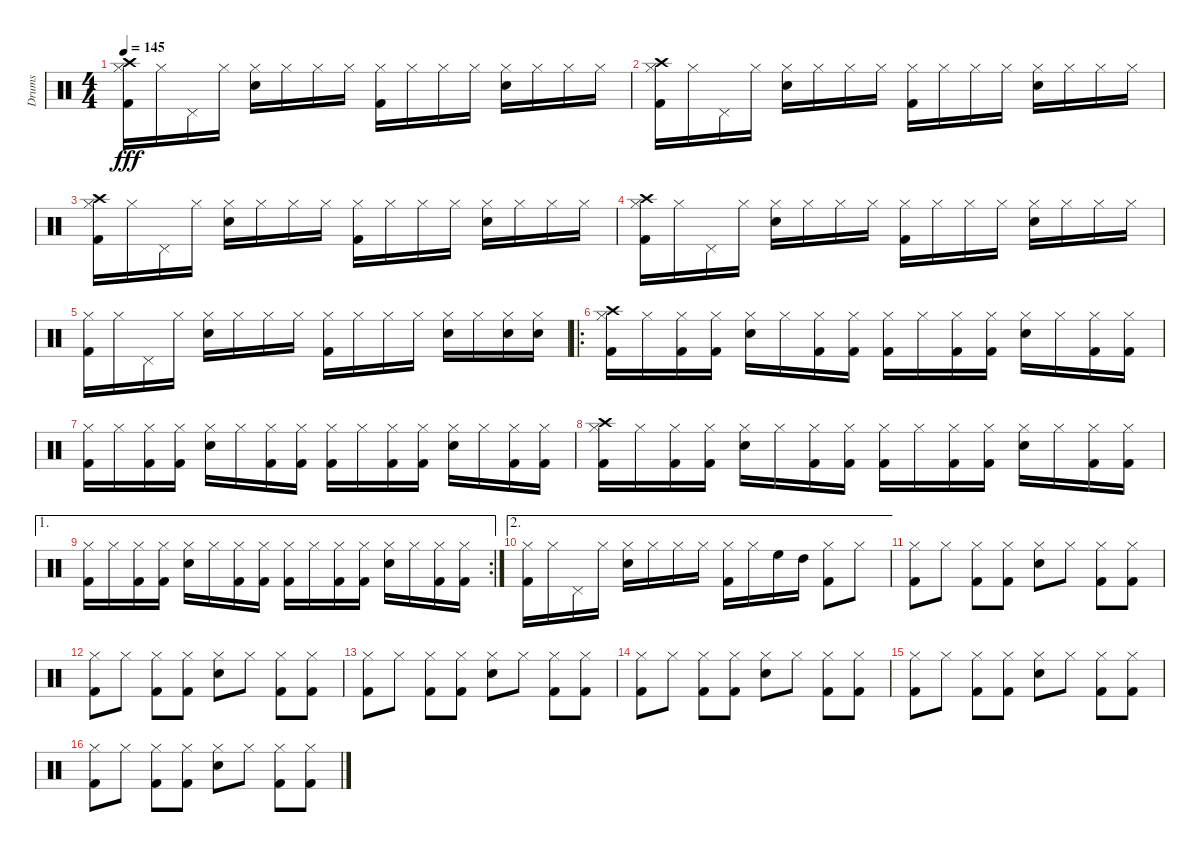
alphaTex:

\track ("Drums" "Drums") {instrument percussion}
\staff {score}
\articulation defaults
\ts (4 4)
\tempo 145
\clef neutral
\ks c
("Hi-Hat (closed)" "Kick (hit) 2" "Crash high (hit)").16{dy fff} "Hi-Hat (closed)".16 "Pedal Hi-Hat (hit)".16 "Hi-Hat (closed)".16 ("Hi-Hat (closed)" "Snare (hit) 2").16 "Hi-Hat (closed)".16 "Hi-Hat (closed)".16 "Hi-Hat (closed)".16 ("Hi-Hat (closed)" "Kick (hit) 2").16 "Hi-Hat (closed)".16 "Hi-Hat (closed)".16 "Hi-Hat (closed)".16 ("Hi-Hat (closed)" "Snare (hit) 2").16 "Hi-Hat (closed)".16 "Hi-Hat (closed)".16 "Hi-Hat (closed)".16 |
("Hi-Hat (closed)" "Kick (hit) 2" "Crash high (hit)").16 "Hi-Hat (closed)".16 "Pedal Hi-Hat (hit)".16 "Hi-Hat (closed)".16 ("Hi-Hat (closed)" "Snare (hit) 2").16 "Hi-Hat (closed)".16 "Hi-Hat (closed)".16 "Hi-Hat (closed)".16 ("Hi-Hat (closed)" "Kick (hit) 2").16 "Hi-Hat (closed)".16 "Hi-Hat (closed)".16 "Hi-Hat (closed)".16 ("Hi-Hat (closed)" "Snare (hit) 2").16 "Hi-Hat (closed)".16 "Hi-Hat (closed)".16 "Hi-Hat (closed)".16 |
("Hi-Hat (closed)" "Kick (hit) 2" "Crash high (hit)").16 "Hi-Hat (closed)".16 "Pedal Hi-Hat (hit)".16 "Hi-Hat (closed)".16 ("Hi-Hat (closed)" "Snare (hit) 2").16 "Hi-Hat (closed)".16 "Hi-Hat (closed)".16 "Hi-Hat (closed)".16 ("Hi-Hat (closed)" "Kick (hit) 2").16 "Hi-Hat (closed)".16 "Hi-Hat (closed)".16 "Hi-Hat (closed)".16 ("Hi-Hat (closed)" "Snare (hit) 2").16 "Hi-Hat (closed)".16 "Hi-Hat (closed)".16 "Hi-Hat (closed)".16 |
("Hi-Hat (closed)" "Kick (hit) 2" "Crash high (hit)").16 "Hi-Hat (closed)".16 "Pedal Hi-Hat (hit)".16 "Hi-Hat (closed)".16 ("Hi-Hat (closed)" "Snare (hit) 2").16 "Hi-Hat (closed)".16 "Hi-Hat (closed)".16 "Hi-Hat (closed)".16 ("Hi-Hat (closed)" "Kick (hit) 2").16 "Hi-Hat (closed)".16 "Hi-Hat (closed)".16 "Hi-Hat (closed)".16 ("Hi-Hat (closed)" "Snare (hit) 2").16 "Hi-Hat (closed)".16 "Hi-Hat (closed)".16 "Hi-Hat (closed)".16 |
("Hi-Hat (closed)" "Kick (hit) 2").16 "Hi-Hat (closed)".16 "Pedal Hi-Hat (hit)".16 "Hi-Hat (closed)".16 ("Hi-Hat (closed)" "Snare (hit) 2").16 "Hi-Hat (closed)".16 "Hi-Hat (closed)".16 "Hi-Hat (closed)".16 ("Hi-Hat (closed)" "Kick (hit) 2").16 "Hi-Hat (closed)".16 "Hi-Hat (closed)".16 "Hi-Hat (closed)".16 ("Hi-Hat (closed)" "Snare (hit) 2").16 "Hi-Hat (closed)".16 ("Hi-Hat (closed)" "Snare (hit) 2").16 ("Hi-Hat (closed)" "Snare (hit) 2").16 |
\ro
("Hi-Hat (closed)" "Kick (hit) 2" "Crash high (hit)").16 "Hi-Hat (closed)".16 ("Kick (hit) 2" "Hi-Hat (closed)").16 ("Kick (hit) 2" "Hi-Hat (closed)").16 ("Hi-Hat (closed)" "Snare (hit) 2").16 "Hi-Hat (closed)".16 ("Kick (hit) 2" "Hi-Hat (closed)").16 ("Kick (hit) 2" "Hi-Hat (closed)").16 ("Hi-Hat (closed)" "Kick (hit) 2").16 "Hi-Hat (closed)".16 ("Kick (hit) 2" "Hi-Hat (closed)").16 ("Kick (hit) 2" "Hi-Hat (closed)").16 ("Hi-Hat (closed)" "Snare (hit) 2").16 "Hi-Hat (closed)".16 ("Kick (hit) 2" "Hi-Hat (closed)").16 ("Kick (hit) 2" "Hi-Hat (closed)").16 |
("Hi-Hat (closed)" "Kick (hit) 2").16 "Hi-Hat (closed)".16 ("Hi-Hat (closed)" "Kick (hit) 2").16 ("Hi-Hat (closed)" "Kick (hit) 2").16 ("Hi-Hat (closed)" "Snare (hit) 2").16 "Hi-Hat (closed)".16 ("Hi-Hat (closed)" "Kick (hit) 2").16 ("Hi-Hat (closed)" "Kick (hit) 2").16 ("Hi-Hat (closed)" "Kick (hit) 2").16 "Hi-Hat (closed)".16 ("Hi-Hat (closed)" "Kick (hit) 2").16 ("Hi-Hat (closed)" "Kick (hit) 2").16 ("Hi-Hat (closed)" "Snare (hit) 2").16 "Hi-Hat (closed)".16 ("Hi-Hat (closed)" "Kick (hit) 2").16 ("Hi-Hat (closed)" "Kick (hit) 2").16 |
("Hi-Hat (closed)" "Kick (hit) 2" "Crash high (hit)").16 "Hi-Hat (closed)".16 ("Hi-Hat (closed)" "Kick (hit) 2").16 ("Hi-Hat (closed)" "Kick (hit) 2").16 ("Hi-Hat (closed)" "Snare (hit) 2").16 "Hi-Hat (closed)".16 ("Hi-Hat (closed)" "Kick (hit) 2").16 ("Hi-Hat (closed)" "Kick (hit) 2").16 ("Hi-Hat (closed)" "Kick (hit) 2").16 "Hi-Hat (closed)".16 ("Hi-Hat (closed)" "Kick (hit) 2").16 ("Hi-Hat (closed)" "Kick (hit) 2").16 ("Hi-Hat (closed)" "Snare (hit) 2").16 "Hi-Hat (closed)".16 ("Hi-Hat (closed)" "Kick (hit) 2").16 ("Hi-Hat (closed)" "Kick (hit) 2").16 |
\ae 1
\rc 2
("Hi-Hat (closed)" "Kick (hit) 2").16 "Hi-Hat (closed)".16 ("Hi-Hat (closed)" "Kick (hit) 2").16 ("Hi-Hat (closed)" "Kick (hit) 2").16 ("Hi-Hat (closed)" "Snare (hit) 2").16 "Hi-Hat (closed)".16 ("Hi-Hat (closed)" "Kick (hit) 2").16 ("Hi-Hat (closed)" "Kick (hit) 2").16 ("Hi-Hat (closed)" "Kick (hit) 2").16 "Hi-Hat (closed)".16 ("Hi-Hat (closed)" "Kick (hit) 2").16 ("Hi-Hat (closed)" "Kick (hit) 2").16 ("Hi-Hat (closed)" "Snare (hit) 2").16 "Hi-Hat (closed)".16 ("Hi-Hat (closed)" "Kick (hit) 2").16 ("Hi-Hat (closed)" "Kick (hit) 2").16 |
\ae 2
("Hi-Hat (closed)" "Kick (hit) 2").16 "Hi-Hat (closed)".16 "Pedal Hi-Hat (hit)".16 "Hi-Hat (closed)".16 ("Hi-Hat (closed)" "Snare (hit) 2").16 "Hi-Hat (closed)".16 "Hi-Hat (closed)".16 "Hi-Hat (closed)".16 ("Hi-Hat (closed)" "Kick (hit) 2").16 "Hi-Hat (closed)".16 "High Floor Tom (hit)".16 "High Tom (hit)".16 ("Hi-Hat (closed)" "Kick (hit) 2").8 "Hi-Hat (closed)".8 |
("Hi-Hat (closed)" "Kick (hit) 2").8 "Hi-Hat (closed)".8 ("Hi-Hat (closed)" "Kick (hit) 2").8 ("Hi-Hat (closed)" "Kick (hit) 2").8 ("Hi-Hat (closed)" "Snare (hit) 2").8 "Hi-Hat (closed)".8 ("Hi-Hat (closed)" "Kick (hit) 2").8 ("Hi-Hat (closed)" "Kick (hit) 2").8 |
("Hi-Hat (closed)" "Kick (hit) 2").8 "Hi-Hat (closed)".8 ("Hi-Hat (closed)" "Kick (hit) 2").8 ("Hi-Hat (closed)" "Kick (hit) 2").8 ("Hi-Hat (closed)" "Snare (hit) 2").8 "Hi-Hat (closed)".8 ("Hi-Hat (closed)" "Kick (hit) 2").8 ("Hi-Hat (closed)" "Kick (hit) 2").8 |
("Hi-Hat (closed)" "Kick (hit) 2").8 "Hi-Hat (closed)".8 ("Hi-Hat (closed)" "Kick (hit) 2").8 ("Hi-Hat (closed)" "Kick (hit) 2").8 ("Hi-Hat (closed)" "Snare (hit) 2").8 "Hi-Hat (closed)".8 ("Hi-Hat (closed)" "Kick (hit) 2").8 ("Hi-Hat (closed)" "Kick (hit) 2").8 |
("Hi-Hat (closed)" "Kick (hit) 2").8 "Hi-Hat (closed)".8 ("Hi-Hat (closed)" "Kick (hit) 2").8 ("Hi-Hat (closed)" "Kick (hit) 2").8 ("Hi-Hat (closed)" "Snare (hit) 2").8 "Hi-Hat (closed)".8 ("Hi-Hat (closed)" "Kick (hit) 2").8 ("Hi-Hat (closed)" "Kick (hit) 2").8 |
("Hi-Hat (closed)" "Kick (hit) 2").8 "Hi-Hat (closed)".8 ("Hi-Hat (closed)" "Kick (hit) 2").8 ("Hi-Hat (closed)" "Kick (hit) 2").8 ("Hi-Hat (closed)" "Snare (hit) 2").8 "Hi-Hat (closed)".8 ("Hi-Hat (closed)" "Kick (hit) 2").8 ("Hi-Hat (closed)" "Kick (hit) 2").8 |
("Hi-Hat (closed)" "Kick (hit) 2").8 "Hi-Hat (closed)".8 ("Hi-Hat (closed)" "Kick (hit) 2").8 ("Hi-Hat (closed)" "Kick (hit) 2").8 ("Hi-Hat (closed)" "Snare (hit) 2").8 "Hi-Hat (closed)".8 ("Hi-Hat (closed)" "Kick (hit) 2").8 ("Hi-Hat (closed)" "Kick (hit) 2").8
